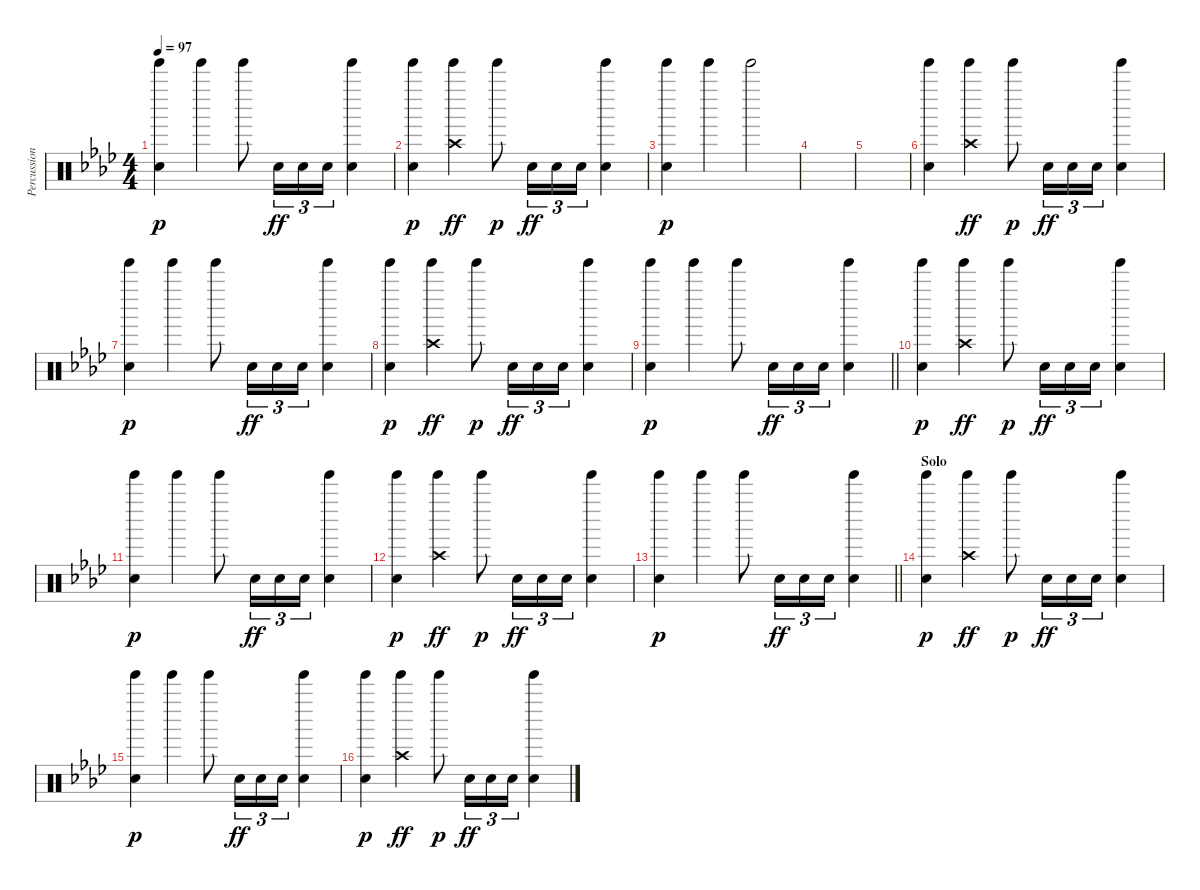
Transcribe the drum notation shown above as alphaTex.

\track ("Percussion" "Percussion") {instrument percussion}
\staff {score}
\articulation defaults
\ts (4 4)
\tempo 97
\clef neutral
\ks fminor
("Tinkle Bell (hit)" "Snare (hit)").4{dy p} "Tinkle Bell (hit)".4 "Tinkle Bell (hit)".8 "Snare (hit) 2".16{tu (3 2) dy ff} "Snare (hit) 2".16{tu (3 2)} "Snare (hit) 2".16{tu (3 2)} ("Tinkle Bell (hit)" "Snare (hit) 2").4 |
("Tinkle Bell (hit)" "Snare (hit)").4{dy p} ("Tinkle Bell (hit)" "Crash high (hit)").4{dy ff} "Tinkle Bell (hit)".8{dy p} "Snare (hit) 2".16{tu (3 2) dy ff} "Snare (hit) 2".16{tu (3 2)} "Snare (hit) 2".16{tu (3 2)} ("Tinkle Bell (hit)" "Snare (hit) 2").4 |
("Tinkle Bell (hit)" "Snare (hit)").4{dy p} "Tinkle Bell (hit)".4 "Tinkle Bell (hit)".2 |
|
|
("Tinkle Bell (hit)" "Snare (hit)").4 ("Tinkle Bell (hit)" "Crash high (hit)").4{dy ff} "Tinkle Bell (hit)".8{dy p} "Snare (hit) 2".16{tu (3 2) dy ff} "Snare (hit) 2".16{tu (3 2)} "Snare (hit) 2".16{tu (3 2)} ("Tinkle Bell (hit)" "Snare (hit) 2").4 |
("Tinkle Bell (hit)" "Snare (hit)").4{dy p} "Tinkle Bell (hit)".4 "Tinkle Bell (hit)".8 "Snare (hit) 2".16{tu (3 2) dy ff} "Snare (hit) 2".16{tu (3 2)} "Snare (hit) 2".16{tu (3 2)} ("Tinkle Bell (hit)" "Snare (hit) 2").4 |
("Tinkle Bell (hit)" "Snare (hit)").4{dy p} ("Tinkle Bell (hit)" "Crash high (hit)").4{dy ff} "Tinkle Bell (hit)".8{dy p} "Snare (hit) 2".16{tu (3 2) dy ff} "Snare (hit) 2".16{tu (3 2)} "Snare (hit) 2".16{tu (3 2)} ("Tinkle Bell (hit)" "Snare (hit) 2").4 |
\barLineRight lightlight
("Tinkle Bell (hit)" "Snare (hit)").4{dy p} "Tinkle Bell (hit)".4 "Tinkle Bell (hit)".8 "Snare (hit) 2".16{tu (3 2) dy ff} "Snare (hit) 2".16{tu (3 2)} "Snare (hit) 2".16{tu (3 2)} ("Tinkle Bell (hit)" "Snare (hit) 2").4 |
("Tinkle Bell (hit)" "Snare (hit)").4{dy p} ("Tinkle Bell (hit)" "Crash high (hit)").4{dy ff} "Tinkle Bell (hit)".8{dy p} "Snare (hit) 2".16{tu (3 2) dy ff} "Snare (hit) 2".16{tu (3 2)} "Snare (hit) 2".16{tu (3 2)} ("Tinkle Bell (hit)" "Snare (hit) 2").4 |
("Tinkle Bell (hit)" "Snare (hit)").4{dy p} "Tinkle Bell (hit)".4 "Tinkle Bell (hit)".8 "Snare (hit) 2".16{tu (3 2) dy ff} "Snare (hit) 2".16{tu (3 2)} "Snare (hit) 2".16{tu (3 2)} ("Tinkle Bell (hit)" "Snare (hit) 2").4 |
("Tinkle Bell (hit)" "Snare (hit)").4{dy p} ("Tinkle Bell (hit)" "Crash high (hit)").4{dy ff} "Tinkle Bell (hit)".8{dy p} "Snare (hit) 2".16{tu (3 2) dy ff} "Snare (hit) 2".16{tu (3 2)} "Snare (hit) 2".16{tu (3 2)} ("Tinkle Bell (hit)" "Snare (hit) 2").4 |
\barLineRight lightlight
("Tinkle Bell (hit)" "Snare (hit)").4{dy p} "Tinkle Bell (hit)".4 "Tinkle Bell (hit)".8 "Snare (hit) 2".16{tu (3 2) dy ff} "Snare (hit) 2".16{tu (3 2)} "Snare (hit) 2".16{tu (3 2)} ("Tinkle Bell (hit)" "Snare (hit) 2").4 |
\section ("" "Solo")
("Tinkle Bell (hit)" "Snare (hit)").4{dy p} ("Tinkle Bell (hit)" "Crash high (hit)").4{dy ff} "Tinkle Bell (hit)".8{dy p} "Snare (hit) 2".16{tu (3 2) dy ff} "Snare (hit) 2".16{tu (3 2)} "Snare (hit) 2".16{tu (3 2)} ("Tinkle Bell (hit)" "Snare (hit) 2").4 |
("Tinkle Bell (hit)" "Snare (hit)").4{dy p} "Tinkle Bell (hit)".4 "Tinkle Bell (hit)".8 "Snare (hit) 2".16{tu (3 2) dy ff} "Snare (hit) 2".16{tu (3 2)} "Snare (hit) 2".16{tu (3 2)} ("Tinkle Bell (hit)" "Snare (hit) 2").4 |
("Tinkle Bell (hit)" "Snare (hit)").4{dy p} ("Tinkle Bell (hit)" "Crash high (hit)").4{dy ff} "Tinkle Bell (hit)".8{dy p} "Snare (hit) 2".16{tu (3 2) dy ff} "Snare (hit) 2".16{tu (3 2)} "Snare (hit) 2".16{tu (3 2)} ("Tinkle Bell (hit)" "Snare (hit) 2").4
